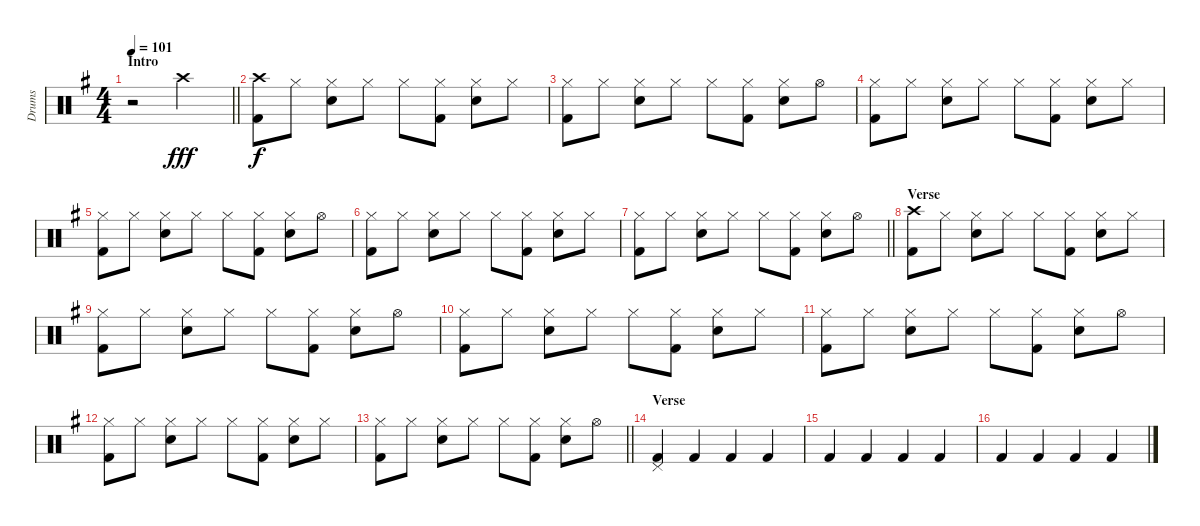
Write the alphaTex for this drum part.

\track ("Drums" "Drums") {instrument percussion}
\staff {score}
\articulation defaults
\ts (4 4)
\section ("" "Intro")
\tempo 101
\clef neutral
\barLineRight lightlight
\ks eminor
r.2{dy fff volume 0} "Crash high (hit)".2{volume 13} |
\section ("" "")
("Crash high (hit)" "Kick (hit) 2").8{dy f} "Hi-Hat (closed)".8 ("Hi-Hat (closed)" "Snare (hit) 2").8 "Hi-Hat (closed)".8 "Hi-Hat (closed)".8 ("Hi-Hat (closed)" "Kick (hit) 2").8 ("Hi-Hat (closed)" "Snare (hit) 2").8 "Hi-Hat (closed)".8 |
("Hi-Hat (closed)" "Kick (hit) 2").8 "Hi-Hat (closed)".8 ("Hi-Hat (closed)" "Snare (hit) 2").8 "Hi-Hat (closed)".8 "Hi-Hat (closed)".8 ("Hi-Hat (closed)" "Kick (hit) 2").8 ("Hi-Hat (closed)" "Snare (hit) 2").8 "Hi-Hat (open)".8 |
("Hi-Hat (closed)" "Kick (hit) 2").8 "Hi-Hat (closed)".8 ("Hi-Hat (closed)" "Snare (hit) 2").8 "Hi-Hat (closed)".8 "Hi-Hat (closed)".8 ("Hi-Hat (closed)" "Kick (hit) 2").8 ("Hi-Hat (closed)" "Snare (hit) 2").8 "Hi-Hat (closed)".8 |
("Hi-Hat (closed)" "Kick (hit) 2").8 "Hi-Hat (closed)".8 ("Hi-Hat (closed)" "Snare (hit) 2").8 "Hi-Hat (closed)".8 "Hi-Hat (closed)".8 ("Hi-Hat (closed)" "Kick (hit) 2").8 ("Hi-Hat (closed)" "Snare (hit) 2").8 "Hi-Hat (open)".8 |
("Hi-Hat (closed)" "Kick (hit) 2").8 "Hi-Hat (closed)".8 ("Hi-Hat (closed)" "Snare (hit) 2").8 "Hi-Hat (closed)".8 "Hi-Hat (closed)".8 ("Hi-Hat (closed)" "Kick (hit) 2").8 ("Hi-Hat (closed)" "Snare (hit) 2").8 "Hi-Hat (closed)".8 |
\barLineRight lightlight
("Hi-Hat (closed)" "Kick (hit) 2").8 "Hi-Hat (closed)".8 ("Hi-Hat (closed)" "Snare (hit) 2").8 "Hi-Hat (closed)".8 "Hi-Hat (closed)".8 ("Hi-Hat (closed)" "Kick (hit) 2").8 ("Hi-Hat (closed)" "Snare (hit) 2").8 "Hi-Hat (open)".8 |
\section ("" "Verse")
("Crash high (hit)" "Kick (hit) 2").8 "Hi-Hat (closed)".8 ("Hi-Hat (closed)" "Snare (hit) 2").8 "Hi-Hat (closed)".8 "Hi-Hat (closed)".8 ("Hi-Hat (closed)" "Kick (hit) 2").8 ("Hi-Hat (closed)" "Snare (hit) 2").8 "Hi-Hat (closed)".8 |
("Hi-Hat (closed)" "Kick (hit) 2").8 "Hi-Hat (closed)".8 ("Hi-Hat (closed)" "Snare (hit) 2").8 "Hi-Hat (closed)".8 "Hi-Hat (closed)".8 ("Hi-Hat (closed)" "Kick (hit) 2").8 ("Hi-Hat (closed)" "Snare (hit) 2").8 "Hi-Hat (open)".8 |
("Hi-Hat (closed)" "Kick (hit) 2").8 "Hi-Hat (closed)".8 ("Hi-Hat (closed)" "Snare (hit) 2").8 "Hi-Hat (closed)".8 "Hi-Hat (closed)".8 ("Hi-Hat (closed)" "Kick (hit) 2").8 ("Hi-Hat (closed)" "Snare (hit) 2").8 "Hi-Hat (closed)".8 |
("Hi-Hat (closed)" "Kick (hit) 2").8 "Hi-Hat (closed)".8 ("Hi-Hat (closed)" "Snare (hit) 2").8 "Hi-Hat (closed)".8 "Hi-Hat (closed)".8 ("Hi-Hat (closed)" "Kick (hit) 2").8 ("Hi-Hat (closed)" "Snare (hit) 2").8 "Hi-Hat (open)".8 |
("Hi-Hat (closed)" "Kick (hit) 2").8 "Hi-Hat (closed)".8 ("Hi-Hat (closed)" "Snare (hit) 2").8 "Hi-Hat (closed)".8 "Hi-Hat (closed)".8 ("Hi-Hat (closed)" "Kick (hit) 2").8 ("Hi-Hat (closed)" "Snare (hit) 2").8 "Hi-Hat (closed)".8 |
\barLineRight lightlight
("Hi-Hat (closed)" "Kick (hit) 2").8 "Hi-Hat (closed)".8 ("Hi-Hat (closed)" "Snare (hit) 2").8 "Hi-Hat (closed)".8 "Hi-Hat (closed)".8 ("Hi-Hat (closed)" "Kick (hit) 2").8 ("Hi-Hat (closed)" "Snare (hit) 2").8 "Hi-Hat (open)".8 |
\section ("" "Verse")
("Pedal Hi-Hat (hit)" "Kick (hit) 2").4 "Kick (hit) 2".4 "Kick (hit) 2".4 "Kick (hit) 2".4 |
"Kick (hit) 2".4 "Kick (hit) 2".4 "Kick (hit) 2".4 "Kick (hit) 2".4 |
"Kick (hit) 2".4 "Kick (hit) 2".4 "Kick (hit) 2".4 "Kick (hit) 2".4
